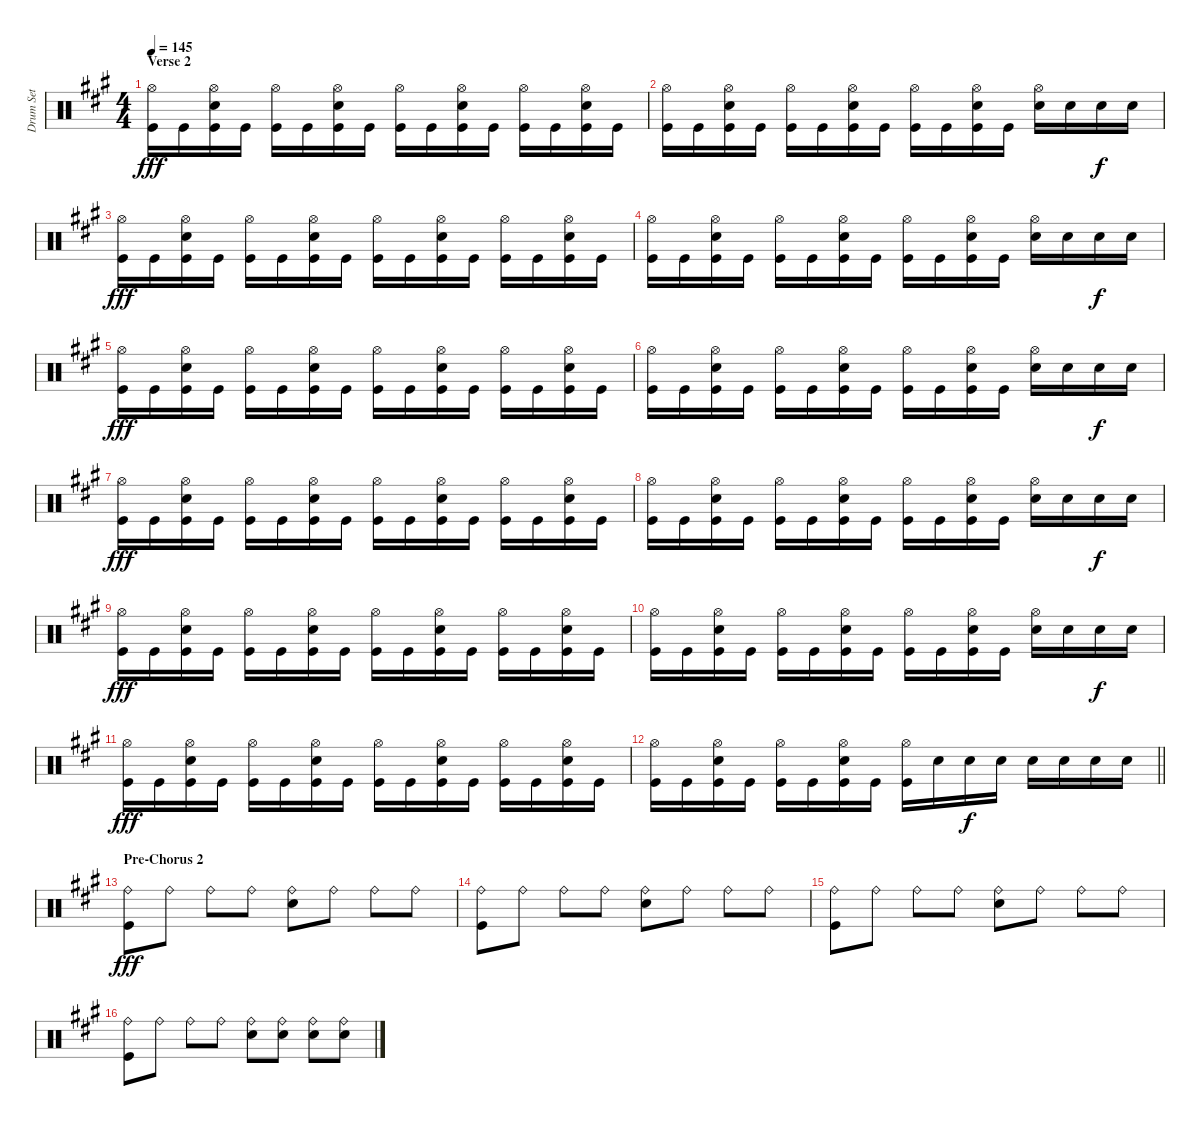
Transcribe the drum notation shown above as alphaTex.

\track ("Drum Set" "Drum Set") {instrument percussion}
\staff {score}
\articulation defaults
\ts (4 4)
\section ("" "Verse 2")
\tempo 145
\clef neutral
\ks a
("Hi-Hat (open)" "Kick (hit)").16{dy fff} "Kick (hit)".16 ("Electric Snare (hit)" "Hi-Hat (open)" "Kick (hit)").16 "Kick (hit)".16 ("Hi-Hat (open)" "Kick (hit)").16 "Kick (hit)".16 ("Electric Snare (hit)" "Hi-Hat (open)" "Kick (hit)").16 "Kick (hit)".16 ("Hi-Hat (open)" "Kick (hit)").16 "Kick (hit)".16 ("Electric Snare (hit)" "Hi-Hat (open)" "Kick (hit)").16 "Kick (hit)".16 ("Hi-Hat (open)" "Kick (hit)").16 "Kick (hit)".16 ("Electric Snare (hit)" "Hi-Hat (open)" "Kick (hit)").16 "Kick (hit)".16 |
("Hi-Hat (open)" "Kick (hit)").16 "Kick (hit)".16 ("Electric Snare (hit)" "Hi-Hat (open)" "Kick (hit)").16 "Kick (hit)".16 ("Hi-Hat (open)" "Kick (hit)").16 "Kick (hit)".16 ("Electric Snare (hit)" "Hi-Hat (open)" "Kick (hit)").16 "Kick (hit)".16 ("Hi-Hat (open)" "Kick (hit)").16 "Kick (hit)".16 ("Electric Snare (hit)" "Hi-Hat (open)" "Kick (hit)").16 "Kick (hit)".16 ("Hi-Hat (open)" "Electric Snare (hit)").16 "Electric Snare (hit)".16 "Electric Snare (hit)".16{dy f} "Electric Snare (hit)".16 |
("Hi-Hat (open)" "Kick (hit)").16{dy fff} "Kick (hit)".16 ("Electric Snare (hit)" "Hi-Hat (open)" "Kick (hit)").16 "Kick (hit)".16 ("Hi-Hat (open)" "Kick (hit)").16 "Kick (hit)".16 ("Electric Snare (hit)" "Hi-Hat (open)" "Kick (hit)").16 "Kick (hit)".16 ("Hi-Hat (open)" "Kick (hit)").16 "Kick (hit)".16 ("Electric Snare (hit)" "Hi-Hat (open)" "Kick (hit)").16 "Kick (hit)".16 ("Hi-Hat (open)" "Kick (hit)").16 "Kick (hit)".16 ("Electric Snare (hit)" "Hi-Hat (open)" "Kick (hit)").16 "Kick (hit)".16 |
("Hi-Hat (open)" "Kick (hit)").16 "Kick (hit)".16 ("Electric Snare (hit)" "Hi-Hat (open)" "Kick (hit)").16 "Kick (hit)".16 ("Hi-Hat (open)" "Kick (hit)").16 "Kick (hit)".16 ("Electric Snare (hit)" "Hi-Hat (open)" "Kick (hit)").16 "Kick (hit)".16 ("Hi-Hat (open)" "Kick (hit)").16 "Kick (hit)".16 ("Electric Snare (hit)" "Hi-Hat (open)" "Kick (hit)").16 "Kick (hit)".16 ("Hi-Hat (open)" "Electric Snare (hit)").16 "Electric Snare (hit)".16 "Electric Snare (hit)".16{dy f} "Electric Snare (hit)".16 |
("Hi-Hat (open)" "Kick (hit)").16{dy fff} "Kick (hit)".16 ("Electric Snare (hit)" "Hi-Hat (open)" "Kick (hit)").16 "Kick (hit)".16 ("Hi-Hat (open)" "Kick (hit)").16 "Kick (hit)".16 ("Electric Snare (hit)" "Hi-Hat (open)" "Kick (hit)").16 "Kick (hit)".16 ("Hi-Hat (open)" "Kick (hit)").16 "Kick (hit)".16 ("Electric Snare (hit)" "Hi-Hat (open)" "Kick (hit)").16 "Kick (hit)".16 ("Hi-Hat (open)" "Kick (hit)").16 "Kick (hit)".16 ("Electric Snare (hit)" "Hi-Hat (open)" "Kick (hit)").16 "Kick (hit)".16 |
("Hi-Hat (open)" "Kick (hit)").16 "Kick (hit)".16 ("Electric Snare (hit)" "Hi-Hat (open)" "Kick (hit)").16 "Kick (hit)".16 ("Hi-Hat (open)" "Kick (hit)").16 "Kick (hit)".16 ("Electric Snare (hit)" "Hi-Hat (open)" "Kick (hit)").16 "Kick (hit)".16 ("Hi-Hat (open)" "Kick (hit)").16 "Kick (hit)".16 ("Electric Snare (hit)" "Hi-Hat (open)" "Kick (hit)").16 "Kick (hit)".16 ("Hi-Hat (open)" "Electric Snare (hit)").16 "Electric Snare (hit)".16 "Electric Snare (hit)".16{dy f} "Electric Snare (hit)".16 |
("Hi-Hat (open)" "Kick (hit)").16{dy fff} "Kick (hit)".16 ("Electric Snare (hit)" "Hi-Hat (open)" "Kick (hit)").16 "Kick (hit)".16 ("Hi-Hat (open)" "Kick (hit)").16 "Kick (hit)".16 ("Electric Snare (hit)" "Hi-Hat (open)" "Kick (hit)").16 "Kick (hit)".16 ("Hi-Hat (open)" "Kick (hit)").16 "Kick (hit)".16 ("Electric Snare (hit)" "Hi-Hat (open)" "Kick (hit)").16 "Kick (hit)".16 ("Hi-Hat (open)" "Kick (hit)").16 "Kick (hit)".16 ("Electric Snare (hit)" "Hi-Hat (open)" "Kick (hit)").16 "Kick (hit)".16 |
("Hi-Hat (open)" "Kick (hit)").16 "Kick (hit)".16 ("Electric Snare (hit)" "Hi-Hat (open)" "Kick (hit)").16 "Kick (hit)".16 ("Hi-Hat (open)" "Kick (hit)").16 "Kick (hit)".16 ("Electric Snare (hit)" "Hi-Hat (open)" "Kick (hit)").16 "Kick (hit)".16 ("Hi-Hat (open)" "Kick (hit)").16 "Kick (hit)".16 ("Electric Snare (hit)" "Hi-Hat (open)" "Kick (hit)").16 "Kick (hit)".16 ("Hi-Hat (open)" "Electric Snare (hit)").16 "Electric Snare (hit)".16 "Electric Snare (hit)".16{dy f} "Electric Snare (hit)".16 |
("Hi-Hat (open)" "Kick (hit)").16{dy fff} "Kick (hit)".16 ("Electric Snare (hit)" "Hi-Hat (open)" "Kick (hit)").16 "Kick (hit)".16 ("Hi-Hat (open)" "Kick (hit)").16 "Kick (hit)".16 ("Electric Snare (hit)" "Hi-Hat (open)" "Kick (hit)").16 "Kick (hit)".16 ("Hi-Hat (open)" "Kick (hit)").16 "Kick (hit)".16 ("Electric Snare (hit)" "Hi-Hat (open)" "Kick (hit)").16 "Kick (hit)".16 ("Hi-Hat (open)" "Kick (hit)").16 "Kick (hit)".16 ("Electric Snare (hit)" "Hi-Hat (open)" "Kick (hit)").16 "Kick (hit)".16 |
("Hi-Hat (open)" "Kick (hit)").16 "Kick (hit)".16 ("Electric Snare (hit)" "Hi-Hat (open)" "Kick (hit)").16 "Kick (hit)".16 ("Hi-Hat (open)" "Kick (hit)").16 "Kick (hit)".16 ("Electric Snare (hit)" "Hi-Hat (open)" "Kick (hit)").16 "Kick (hit)".16 ("Hi-Hat (open)" "Kick (hit)").16 "Kick (hit)".16 ("Electric Snare (hit)" "Hi-Hat (open)" "Kick (hit)").16 "Kick (hit)".16 ("Hi-Hat (open)" "Electric Snare (hit)").16 "Electric Snare (hit)".16 "Electric Snare (hit)".16{dy f} "Electric Snare (hit)".16 |
("Hi-Hat (open)" "Kick (hit)").16{dy fff} "Kick (hit)".16 ("Electric Snare (hit)" "Hi-Hat (open)" "Kick (hit)").16 "Kick (hit)".16 ("Hi-Hat (open)" "Kick (hit)").16 "Kick (hit)".16 ("Electric Snare (hit)" "Hi-Hat (open)" "Kick (hit)").16 "Kick (hit)".16 ("Hi-Hat (open)" "Kick (hit)").16 "Kick (hit)".16 ("Electric Snare (hit)" "Hi-Hat (open)" "Kick (hit)").16 "Kick (hit)".16 ("Hi-Hat (open)" "Kick (hit)").16 "Kick (hit)".16 ("Electric Snare (hit)" "Hi-Hat (open)" "Kick (hit)").16 "Kick (hit)".16 |
\barLineRight lightlight
("Hi-Hat (open)" "Kick (hit)").16 "Kick (hit)".16 ("Electric Snare (hit)" "Hi-Hat (open)" "Kick (hit)").16 "Kick (hit)".16 ("Hi-Hat (open)" "Kick (hit)").16 "Kick (hit)".16 ("Electric Snare (hit)" "Hi-Hat (open)" "Kick (hit)").16 "Kick (hit)".16 ("Hi-Hat (open)" "Kick (hit)").16 "Electric Snare (hit)".16 "Electric Snare (hit)".16{dy f} "Electric Snare (hit)".16 "Electric Snare (hit)".16 "Electric Snare (hit)".16 "Electric Snare (hit)".16 "Electric Snare (hit)".16 |
\section ("" "Pre-Chorus 2")
("Ride (bell)" "Kick (hit)").8{dy fff} "Ride (bell)".8 "Ride (bell)".8 "Ride (bell)".8 ("Ride (bell)" "Electric Snare (hit)").8 "Ride (bell)".8 "Ride (bell)".8 "Ride (bell)".8 |
("Ride (bell)" "Kick (hit)").8 "Ride (bell)".8 "Ride (bell)".8 "Ride (bell)".8 ("Ride (bell)" "Electric Snare (hit)").8 "Ride (bell)".8 "Ride (bell)".8 "Ride (bell)".8 |
("Ride (bell)" "Kick (hit)").8 "Ride (bell)".8 "Ride (bell)".8 "Ride (bell)".8 ("Ride (bell)" "Electric Snare (hit)").8 "Ride (bell)".8 "Ride (bell)".8 "Ride (bell)".8 |
("Ride (bell)" "Kick (hit)").8 "Ride (bell)".8 "Ride (bell)".8 "Ride (bell)".8 ("Ride (bell)" "Electric Snare (hit)").8 ("Ride (bell)" "Electric Snare (hit)").8 ("Ride (bell)" "Electric Snare (hit)").8 ("Ride (bell)" "Electric Snare (hit)").8
